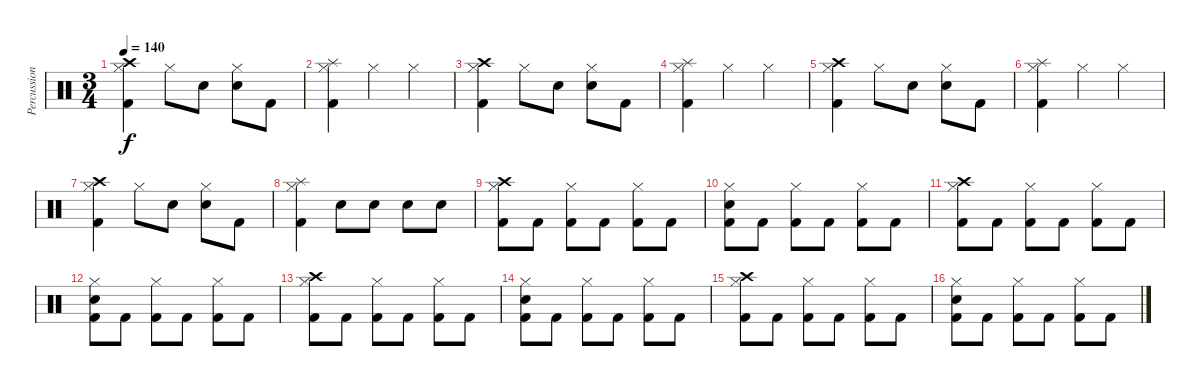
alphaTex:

\track ("Percussion" "Percussion") {instrument percussion}
\staff {score}
\articulation defaults
\ts (3 4)
\tempo 140
\clef neutral
\ks c
("Crash high (hit)" "Hi-Hat (closed)" "Kick (hit) 2").4{dy f} "Hi-Hat (closed)".8 "Electric Snare (hit)".8 ("Hi-Hat (closed)" "Electric Snare (hit)").8 "Kick (hit) 2".8 |
("Splash (hit)" "Hi-Hat (closed)" "Kick (hit) 2").4 "Hi-Hat (closed)".4 "Hi-Hat (closed)".4 |
("Crash high (hit)" "Hi-Hat (closed)" "Kick (hit) 2").4 "Hi-Hat (closed)".8 "Electric Snare (hit)".8 ("Hi-Hat (closed)" "Electric Snare (hit)").8 "Kick (hit) 2".8 |
("Splash (hit)" "Hi-Hat (closed)" "Kick (hit) 2").4 "Hi-Hat (closed)".4 "Hi-Hat (closed)".4 |
("Crash high (hit)" "Hi-Hat (closed)" "Kick (hit) 2").4 "Hi-Hat (closed)".8 "Electric Snare (hit)".8 ("Hi-Hat (closed)" "Electric Snare (hit)").8 "Kick (hit) 2".8 |
("Splash (hit)" "Hi-Hat (closed)" "Kick (hit) 2").4 "Hi-Hat (closed)".4 "Hi-Hat (closed)".4 |
("Crash high (hit)" "Hi-Hat (closed)" "Kick (hit) 2").4 "Hi-Hat (closed)".8 "Electric Snare (hit)".8 ("Hi-Hat (closed)" "Electric Snare (hit)").8 "Kick (hit) 2".8 |
("Splash (hit)" "Hi-Hat (closed)" "Kick (hit) 2").4 "Electric Snare (hit)".8 "Electric Snare (hit)".8 "Electric Snare (hit)".8 "Electric Snare (hit)".8 |
("Crash high (hit)" "Hi-Hat (closed)" "Kick (hit) 2").8 "Kick (hit) 2".8 ("Hi-Hat (closed)" "Kick (hit) 2").8 "Kick (hit) 2".8 ("Hi-Hat (closed)" "Kick (hit) 2").8 "Kick (hit) 2".8 |
("Hi-Hat (closed)" "Electric Snare (hit)" "Kick (hit) 2").8 "Kick (hit) 2".8 ("Hi-Hat (closed)" "Kick (hit) 2").8 "Kick (hit) 2".8 ("Hi-Hat (closed)" "Kick (hit) 2").8 "Kick (hit) 2".8 |
("Crash high (hit)" "Hi-Hat (closed)" "Kick (hit) 2").8 "Kick (hit) 2".8 ("Hi-Hat (closed)" "Kick (hit) 2").8 "Kick (hit) 2".8 ("Hi-Hat (closed)" "Kick (hit) 2").8 "Kick (hit) 2".8 |
("Hi-Hat (closed)" "Electric Snare (hit)" "Kick (hit) 2").8 "Kick (hit) 2".8 ("Hi-Hat (closed)" "Kick (hit) 2").8 "Kick (hit) 2".8 ("Hi-Hat (closed)" "Kick (hit) 2").8 "Kick (hit) 2".8 |
("Crash high (hit)" "Hi-Hat (closed)" "Kick (hit) 2").8 "Kick (hit) 2".8 ("Hi-Hat (closed)" "Kick (hit) 2").8 "Kick (hit) 2".8 ("Hi-Hat (closed)" "Kick (hit) 2").8 "Kick (hit) 2".8 |
("Hi-Hat (closed)" "Electric Snare (hit)" "Kick (hit) 2").8 "Kick (hit) 2".8 ("Hi-Hat (closed)" "Kick (hit) 2").8 "Kick (hit) 2".8 ("Hi-Hat (closed)" "Kick (hit) 2").8 "Kick (hit) 2".8 |
("Crash high (hit)" "Hi-Hat (closed)" "Kick (hit) 2").8 "Kick (hit) 2".8 ("Hi-Hat (closed)" "Kick (hit) 2").8 "Kick (hit) 2".8 ("Hi-Hat (closed)" "Kick (hit) 2").8 "Kick (hit) 2".8 |
("Hi-Hat (closed)" "Electric Snare (hit)" "Kick (hit) 2").8 "Kick (hit) 2".8 ("Hi-Hat (closed)" "Kick (hit) 2").8 "Kick (hit) 2".8 ("Hi-Hat (closed)" "Kick (hit) 2").8 "Kick (hit) 2".8
